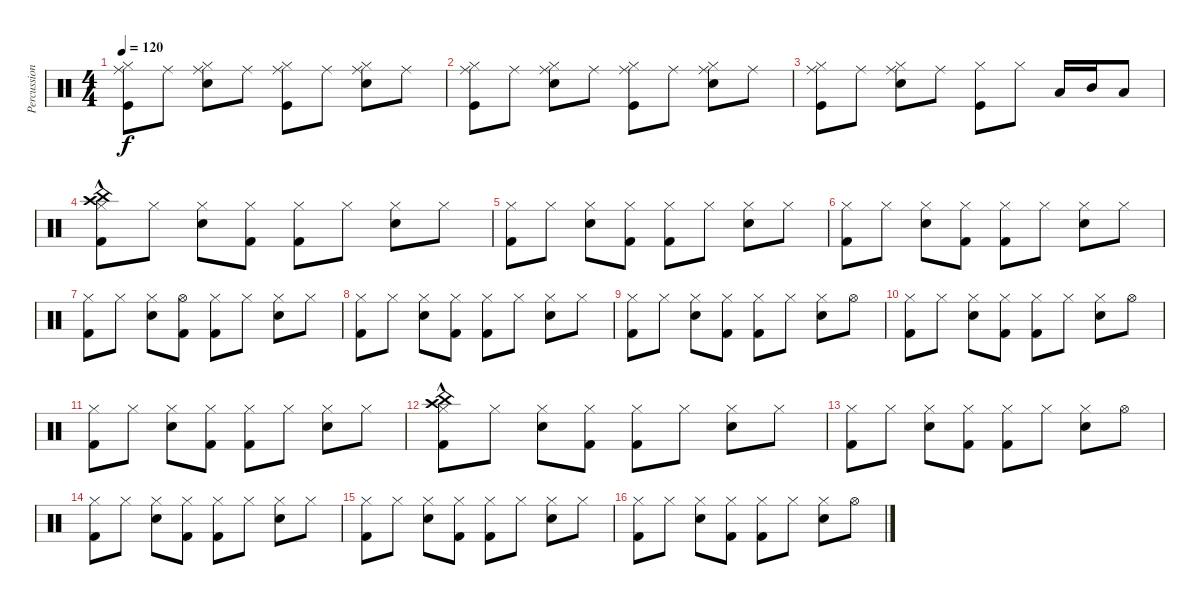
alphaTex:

\track ("Percussion" "Percussion") {instrument percussion}
\staff {score}
\articulation defaults
\ts (4 4)
\tempo 120
\clef neutral
\ks c
("Hi-Hat (closed)" "Kick (hit)" "Ride (middle)").8{dy f} "Ride (middle)".8 ("Ride (middle)" "Hi-Hat (closed)" "Snare (hit) 2").8 "Ride (middle)".8 ("Ride (middle)" "Hi-Hat (closed)" "Kick (hit)").8 "Ride (middle)".8 ("Ride (middle)" "Hi-Hat (closed)" "Snare (hit) 2").8 "Ride (middle)".8 |
("Hi-Hat (closed)" "Kick (hit)" "Ride (middle)").8 "Ride (middle)".8 ("Ride (middle)" "Hi-Hat (closed)" "Snare (hit) 2").8 "Ride (middle)".8 ("Ride (middle)" "Hi-Hat (closed)" "Kick (hit)").8 "Ride (middle)".8 ("Ride (middle)" "Hi-Hat (closed)" "Snare (hit) 2").8 "Ride (middle)".8 |
("Hi-Hat (closed)" "Kick (hit)" "Ride (middle)").8 "Ride (middle)".8 ("Ride (middle)" "Hi-Hat (closed)" "Snare (hit) 2").8 "Ride (middle)".8 ("Hi-Hat (closed)" "Kick (hit)").8 "Hi-Hat (closed)".8 "Low Tom (hit)".16 "Mid Tom (hit)".16 "Low Tom (hit)".8 |
("Crash high (hit)" "Hi-Hat (closed)"{hac} "Kick (hit) 2"{hac} "China (hit)"{hac}).8 "Hi-Hat (closed)".8 ("Snare (hit) 2" "Hi-Hat (closed)").8 ("Kick (hit) 2" "Hi-Hat (closed)").8 ("Kick (hit) 2" "Hi-Hat (closed)").8 "Hi-Hat (closed)".8 ("Hi-Hat (closed)" "Snare (hit) 2").8 "Hi-Hat (closed)".8 |
("Hi-Hat (closed)" "Kick (hit) 2").8 "Hi-Hat (closed)".8 ("Snare (hit) 2" "Hi-Hat (closed)").8 ("Kick (hit) 2" "Hi-Hat (closed)").8 ("Kick (hit) 2" "Hi-Hat (closed)").8 "Hi-Hat (closed)".8 ("Hi-Hat (closed)" "Snare (hit) 2").8 "Hi-Hat (closed)".8 |
("Hi-Hat (closed)" "Kick (hit) 2").8 "Hi-Hat (closed)".8 ("Snare (hit) 2" "Hi-Hat (closed)").8 ("Kick (hit) 2" "Hi-Hat (closed)").8 ("Kick (hit) 2" "Hi-Hat (closed)").8 "Hi-Hat (closed)".8 ("Hi-Hat (closed)" "Snare (hit) 2").8 "Hi-Hat (closed)".8 |
("Hi-Hat (closed)" "Kick (hit) 2").8 "Hi-Hat (closed)".8 ("Snare (hit) 2" "Hi-Hat (closed)").8 ("Hi-Hat (open)" "Kick (hit) 2").8 ("Kick (hit) 2" "Hi-Hat (closed)").8 "Hi-Hat (closed)".8 ("Hi-Hat (closed)" "Snare (hit) 2").8 "Hi-Hat (closed)".8 |
("Hi-Hat (closed)" "Kick (hit) 2").8 "Hi-Hat (closed)".8 ("Snare (hit) 2" "Hi-Hat (closed)").8 ("Kick (hit) 2" "Hi-Hat (closed)").8 ("Kick (hit) 2" "Hi-Hat (closed)").8 "Hi-Hat (closed)".8 ("Hi-Hat (closed)" "Snare (hit) 2").8 "Hi-Hat (closed)".8 |
("Hi-Hat (closed)" "Kick (hit) 2").8 "Hi-Hat (closed)".8 ("Snare (hit) 2" "Hi-Hat (closed)").8 ("Kick (hit) 2" "Hi-Hat (closed)").8 ("Kick (hit) 2" "Hi-Hat (closed)").8 "Hi-Hat (closed)".8 ("Hi-Hat (closed)" "Snare (hit) 2").8 "Hi-Hat (open)".8 |
("Hi-Hat (closed)" "Kick (hit) 2").8 "Hi-Hat (closed)".8 ("Snare (hit) 2" "Hi-Hat (closed)").8 ("Kick (hit) 2" "Hi-Hat (closed)").8 ("Kick (hit) 2" "Hi-Hat (closed)").8 "Hi-Hat (closed)".8 ("Hi-Hat (closed)" "Snare (hit) 2").8 "Hi-Hat (open)".8 |
("Hi-Hat (closed)" "Kick (hit) 2").8 "Hi-Hat (closed)".8 ("Snare (hit) 2" "Hi-Hat (closed)").8 ("Kick (hit) 2" "Hi-Hat (closed)").8 ("Kick (hit) 2" "Hi-Hat (closed)").8 "Hi-Hat (closed)".8 ("Hi-Hat (closed)" "Snare (hit) 2").8 "Hi-Hat (closed)".8 |
("Crash high (hit)" "Hi-Hat (closed)"{hac} "Kick (hit) 2"{hac} "China (hit)"{hac}).8 "Hi-Hat (closed)".8 ("Snare (hit) 2" "Hi-Hat (closed)").8 ("Kick (hit) 2" "Hi-Hat (closed)").8 ("Kick (hit) 2" "Hi-Hat (closed)").8 "Hi-Hat (closed)".8 ("Hi-Hat (closed)" "Snare (hit) 2").8 "Hi-Hat (closed)".8 |
("Hi-Hat (closed)" "Kick (hit) 2").8 "Hi-Hat (closed)".8 ("Snare (hit) 2" "Hi-Hat (closed)").8 ("Kick (hit) 2" "Hi-Hat (closed)").8 ("Kick (hit) 2" "Hi-Hat (closed)").8 "Hi-Hat (closed)".8 ("Hi-Hat (closed)" "Snare (hit) 2").8 "Hi-Hat (open)".8 |
("Hi-Hat (closed)" "Kick (hit) 2").8 "Hi-Hat (closed)".8 ("Snare (hit) 2" "Hi-Hat (closed)").8 ("Kick (hit) 2" "Hi-Hat (closed)").8 ("Kick (hit) 2" "Hi-Hat (closed)").8 "Hi-Hat (closed)".8 ("Hi-Hat (closed)" "Snare (hit) 2").8 "Hi-Hat (closed)".8 |
("Hi-Hat (closed)" "Kick (hit) 2").8 "Hi-Hat (closed)".8 ("Snare (hit) 2" "Hi-Hat (closed)").8 ("Kick (hit) 2" "Hi-Hat (closed)").8 ("Kick (hit) 2" "Hi-Hat (closed)").8 "Hi-Hat (closed)".8 ("Hi-Hat (closed)" "Snare (hit) 2").8 "Hi-Hat (closed)".8 |
("Hi-Hat (closed)" "Kick (hit) 2").8 "Hi-Hat (closed)".8 ("Snare (hit) 2" "Hi-Hat (closed)").8 ("Kick (hit) 2" "Hi-Hat (closed)").8 ("Kick (hit) 2" "Hi-Hat (closed)").8 "Hi-Hat (closed)".8 ("Hi-Hat (closed)" "Snare (hit) 2").8 "Hi-Hat (open)".8
